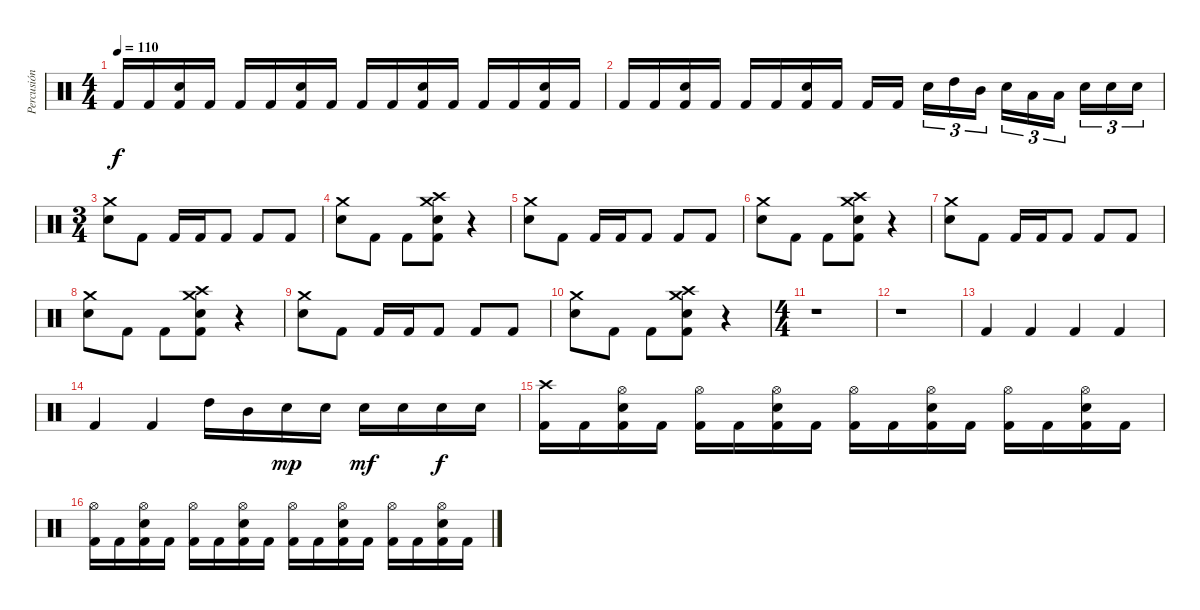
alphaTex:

\track ("Percusión" "Percusión") {instrument percussion}
\staff {score}
\articulation defaults
\ts (4 4)
\tempo 110
\clef neutral
\ks c "Kick (hit) 2".16{dy f} "Kick (hit) 2".16
("Electric Snare (hit)" "Kick (hit) 2").16 "Kick (hit) 2".16 "Kick (hit) 2".16 "Kick (hit) 2".16 ("Electric Snare (hit)" "Kick (hit) 2").16 "Kick (hit) 2".16 "Kick (hit) 2".16 "Kick (hit) 2".16 ("Electric Snare (hit)" "Kick (hit) 2").16 "Kick (hit) 2".16 "Kick (hit) 2".16 "Kick (hit) 2".16 ("Electric Snare (hit)" "Kick (hit) 2").16 "Kick (hit) 2".16 |
"Kick (hit) 2".16 "Kick (hit) 2".16 ("Electric Snare (hit)" "Kick (hit) 2").16 "Kick (hit) 2".16 "Kick (hit) 2".16 "Kick (hit) 2".16 ("Electric Snare (hit)" "Kick (hit) 2").16 "Kick (hit) 2".16 "Kick (hit) 2".16 "Kick (hit) 2".16 "Electric Snare (hit)".16{tu (3 2)} "High Tom (hit)".16{tu (3 2)} "Mid Tom (hit)".16{tu (3 2)} "Electric Snare (hit)".16{tu (3 2)} "Low Tom (hit)".16{tu (3 2)} "Low Tom (hit)".16{tu (3 2)} "Electric Snare (hit)".16{tu (3 2)} "Electric Snare (hit)".16{tu (3 2)} "Electric Snare (hit)".16{tu (3 2)} |
\ts (3 4)
("Crash medium (hit)" "Electric Snare (hit)").8 "Kick (hit) 2".8 "Kick (hit) 2".16 "Kick (hit) 2".16 "Kick (hit) 2".8 "Kick (hit) 2".8 "Kick (hit) 2".8 |
("Crash medium (hit)" "Electric Snare (hit)").8 "Kick (hit) 2".8 "Kick (hit) 2".8 ("Crash high (hit)" "Crash medium (hit)" "Electric Snare (hit)" "Kick (hit) 2").8 r.4 |
("Crash medium (hit)" "Electric Snare (hit)").8 "Kick (hit) 2".8 "Kick (hit) 2".16 "Kick (hit) 2".16 "Kick (hit) 2".8 "Kick (hit) 2".8 "Kick (hit) 2".8 |
("Crash medium (hit)" "Electric Snare (hit)").8 "Kick (hit) 2".8 "Kick (hit) 2".8 ("Crash high (hit)" "Crash medium (hit)" "Electric Snare (hit)" "Kick (hit) 2").8 r.4 |
("Crash medium (hit)" "Electric Snare (hit)").8 "Kick (hit) 2".8 "Kick (hit) 2".16 "Kick (hit) 2".16 "Kick (hit) 2".8 "Kick (hit) 2".8 "Kick (hit) 2".8 |
("Crash medium (hit)" "Electric Snare (hit)").8 "Kick (hit) 2".8 "Kick (hit) 2".8 ("Crash high (hit)" "Crash medium (hit)" "Electric Snare (hit)" "Kick (hit) 2").8 r.4 |
("Crash medium (hit)" "Electric Snare (hit)").8 "Kick (hit) 2".8 "Kick (hit) 2".16 "Kick (hit) 2".16 "Kick (hit) 2".8 "Kick (hit) 2".8 "Kick (hit) 2".8 |
("Crash medium (hit)" "Electric Snare (hit)").8 "Kick (hit) 2".8 "Kick (hit) 2".8 ("Crash high (hit)" "Crash medium (hit)" "Electric Snare (hit)" "Kick (hit) 2").8 r.4 |
\ts (4 4)
r.1 |
r.1 |
"Kick (hit) 2".4 "Kick (hit) 2".4 "Kick (hit) 2".4 "Kick (hit) 2".4 |
"Kick (hit) 2".4 "Kick (hit) 2".4 "High Tom (hit)".16 "Mid Tom (hit)".16 "Electric Snare (hit)".16{dy mp} "Electric Snare (hit)".16 "Electric Snare (hit)".16{dy mf} "Electric Snare (hit)".16 "Electric Snare (hit)".16{dy f} "Electric Snare (hit)".16 |
("Crash high (hit)" "Kick (hit) 2").16 "Kick (hit) 2".16 ("Hi-Hat (open)" "Electric Snare (hit)" "Kick (hit) 2").16 "Kick (hit) 2".16 ("Hi-Hat (open)" "Kick (hit) 2").16 "Kick (hit) 2".16 ("Hi-Hat (open)" "Electric Snare (hit)" "Kick (hit) 2").16 "Kick (hit) 2".16 ("Hi-Hat (open)" "Kick (hit) 2").16 "Kick (hit) 2".16 ("Hi-Hat (open)" "Electric Snare (hit)" "Kick (hit) 2").16 "Kick (hit) 2".16 ("Hi-Hat (open)" "Kick (hit) 2").16 "Kick (hit) 2".16 ("Hi-Hat (open)" "Electric Snare (hit)" "Kick (hit) 2").16 "Kick (hit) 2".16 |
("Hi-Hat (open)" "Kick (hit) 2").16 "Kick (hit) 2".16 ("Hi-Hat (open)" "Electric Snare (hit)" "Kick (hit) 2").16 "Kick (hit) 2".16 ("Hi-Hat (open)" "Kick (hit) 2").16 "Kick (hit) 2".16 ("Hi-Hat (open)" "Electric Snare (hit)" "Kick (hit) 2").16 "Kick (hit) 2".16 ("Hi-Hat (open)" "Kick (hit) 2").16 "Kick (hit) 2".16 ("Hi-Hat (open)" "Electric Snare (hit)" "Kick (hit) 2").16 "Kick (hit) 2".16 ("Hi-Hat (open)" "Kick (hit) 2").16 "Kick (hit) 2".16 ("Hi-Hat (open)" "Electric Snare (hit)" "Kick (hit) 2").16 "Kick (hit) 2".16
